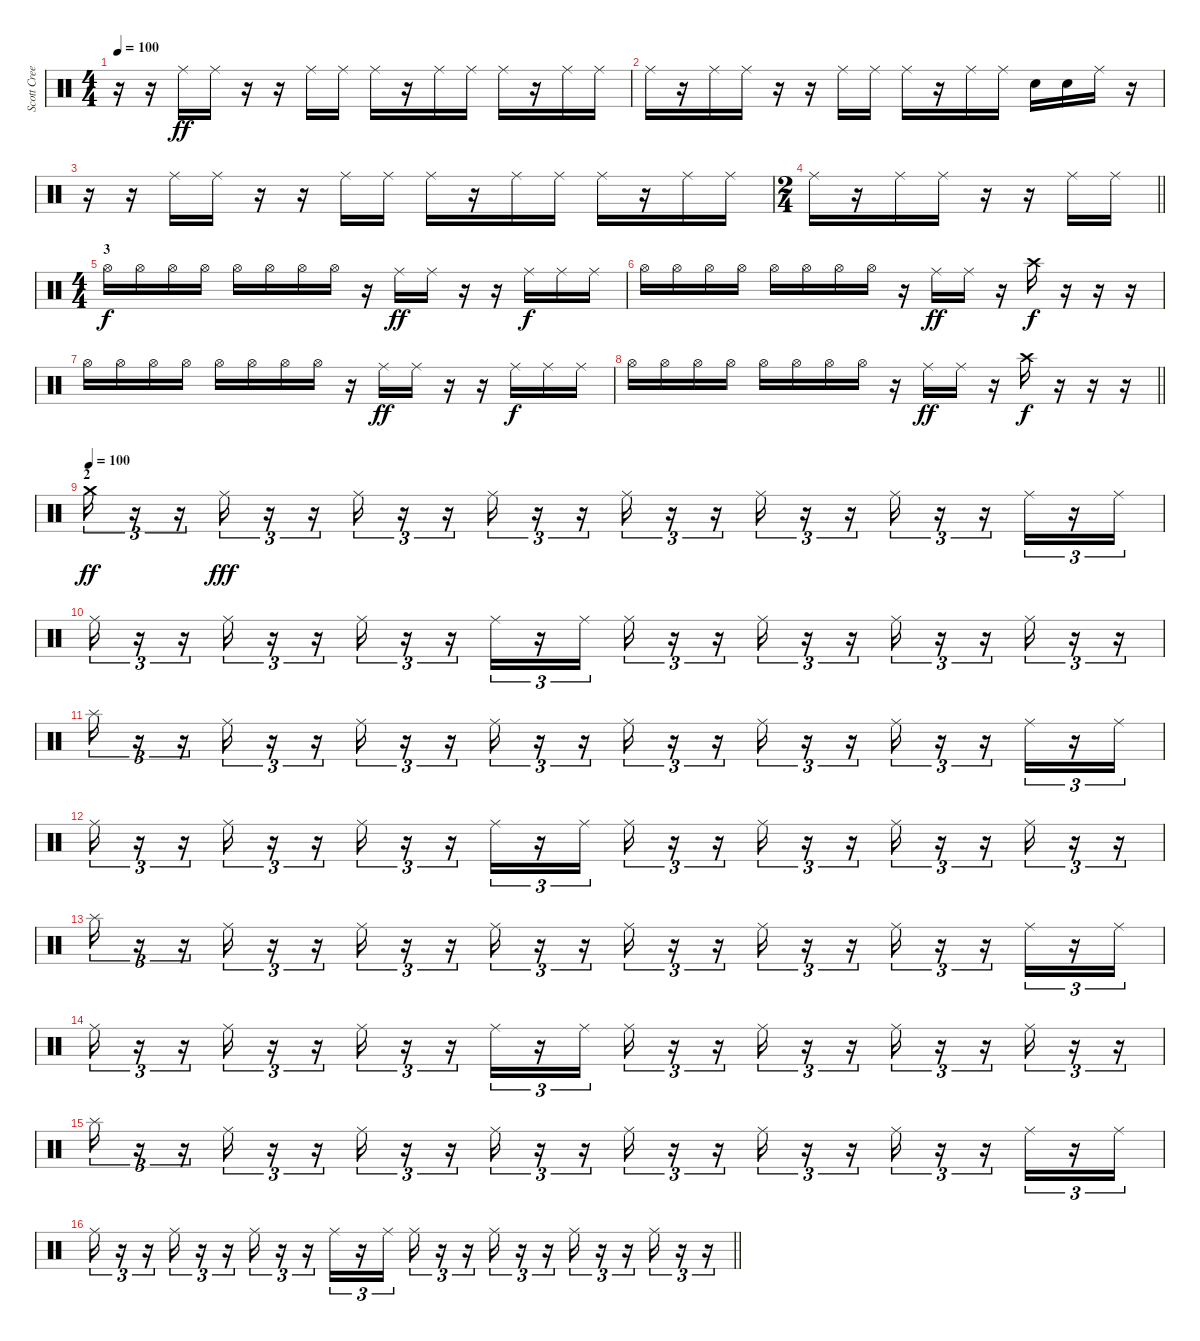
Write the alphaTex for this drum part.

\track ("Scott Creekmore" "Scott Cree") {instrument percussion}
\staff {score}
\articulation defaults
\ts (4 4)
\tempo 100
\clef neutral
\ks c
r.16{dy ff} r.16 "Ride (middle)".16 "Ride (middle)".16 r.16 r.16 "Ride (middle)".16 "Ride (middle)".16 "Ride (middle)".16 r.16 "Ride (middle)".16 "Ride (middle)".16 "Ride (middle)".16 r.16 "Ride (middle)".16 "Ride (middle)".16 |
"Ride (middle)".16 r.16 "Ride (middle)".16 "Ride (middle)".16 r.16 r.16 "Ride (middle)".16 "Ride (middle)".16 "Ride (middle)".16 r.16 "Ride (middle)".16 "Ride (middle)".16 "Electric Snare (hit)".16 "Electric Snare (hit)".16 "Ride (middle)".16 r.16 |
r.16 r.16 "Ride (middle)".16 "Ride (middle)".16 r.16 r.16 "Ride (middle)".16 "Ride (middle)".16 "Ride (middle)".16 r.16 "Ride (middle)".16 "Ride (middle)".16 "Ride (middle)".16 r.16 "Ride (middle)".16 "Ride (middle)".16 |
\ts (2 4)
\barLineRight lightlight "Ride (middle)".16
r.16 "Ride (middle)".16 "Ride (middle)".16 r.16 r.16 "Ride (middle)".16 "Ride (middle)".16 |
\ts (4 4)
\section ("" "3")
"Hi-Hat (open)".16{dy f} "Hi-Hat (open)".16 "Hi-Hat (open)".16 "Hi-Hat (open)".16 "Hi-Hat (open)".16 "Hi-Hat (open)".16 "Hi-Hat (open)".16 "Hi-Hat (open)".16 r.16 "Ride (middle)".16{dy ff} "Ride (middle)".16 r.16 r.16 "Ride (middle)".16{dy f} "Ride (middle)".16 "Ride (middle)".16 |
"Hi-Hat (open)".16 "Hi-Hat (open)".16 "Hi-Hat (open)".16 "Hi-Hat (open)".16 "Hi-Hat (open)".16 "Hi-Hat (open)".16 "Hi-Hat (open)".16 "Hi-Hat (open)".16 r.16 "Ride (middle)".16{dy ff} "Ride (middle)".16 r.16 "Crash high (hit)".16{dy f} r.16 r.16 r.16 |
"Hi-Hat (open)".16 "Hi-Hat (open)".16 "Hi-Hat (open)".16 "Hi-Hat (open)".16 "Hi-Hat (open)".16 "Hi-Hat (open)".16 "Hi-Hat (open)".16 "Hi-Hat (open)".16 r.16 "Ride (middle)".16{dy ff} "Ride (middle)".16 r.16 r.16 "Ride (middle)".16{dy f} "Ride (middle)".16 "Ride (middle)".16 |
\barLineRight lightlight "Hi-Hat (open)".16 "Hi-Hat (open)".16 "Hi-Hat (open)".16 "Hi-Hat (open)".16 "Hi-Hat (open)".16 "Hi-Hat (open)".16 "Hi-Hat (open)".16 "Hi-Hat (open)".16
r.16 "Ride (middle)".16{dy ff} "Ride (middle)".16 r.16 "Crash high (hit)".16{dy f} r.16 r.16 r.16 |
\section ("" "2")
\tempo (100)
"Crash medium (hit)".16{tu (3 2) dy ff} r.16{tu (3 2)} r.16{tu (3 2)} "Ride (middle)".16{tu (3 2) dy fff} r.16{tu (3 2)} r.16{tu (3 2)} "Ride (middle)".16{tu (3 2)} r.16{tu (3 2)} r.16{tu (3 2)} "Ride (middle)".16{tu (3 2)} r.16{tu (3 2)} r.16{tu (3 2)} "Ride (middle)".16{tu (3 2)} r.16{tu (3 2)} r.16{tu (3 2)} "Ride (middle)".16{tu (3 2)} r.16{tu (3 2)} r.16{tu (3 2)} "Ride (middle)".16{tu (3 2)} r.16{tu (3 2)} r.16{tu (3 2)} "Ride (middle)".16{tu (3 2)} r.16{tu (3 2)} "Ride (middle)".16{tu (3 2)} |
"Ride (middle)".16{tu (3 2)} r.16{tu (3 2)} r.16{tu (3 2)} "Ride (middle)".16{tu (3 2)} r.16{tu (3 2)} r.16{tu (3 2)} "Ride (middle)".16{tu (3 2)} r.16{tu (3 2)} r.16{tu (3 2)} "Ride (middle)".16{tu (3 2)} r.16{tu (3 2)} "Ride (middle)".16{tu (3 2)} "Ride (middle)".16{tu (3 2)} r.16{tu (3 2)} r.16{tu (3 2)} "Ride (middle)".16{tu (3 2)} r.16{tu (3 2)} r.16{tu (3 2)} "Ride (middle)".16{tu (3 2)} r.16{tu (3 2)} r.16{tu (3 2)} "Ride (middle)".16{tu (3 2)} r.16{tu (3 2)} r.16{tu (3 2)} |
"Splash (hit)".16{tu (3 2)} r.16{tu (3 2)} r.16{tu (3 2)} "Ride (middle)".16{tu (3 2)} r.16{tu (3 2)} r.16{tu (3 2)} "Ride (middle)".16{tu (3 2)} r.16{tu (3 2)} r.16{tu (3 2)} "Ride (middle)".16{tu (3 2)} r.16{tu (3 2)} r.16{tu (3 2)} "Ride (middle)".16{tu (3 2)} r.16{tu (3 2)} r.16{tu (3 2)} "Ride (middle)".16{tu (3 2)} r.16{tu (3 2)} r.16{tu (3 2)} "Ride (middle)".16{tu (3 2)} r.16{tu (3 2)} r.16{tu (3 2)} "Ride (middle)".16{tu (3 2)} r.16{tu (3 2)} "Ride (middle)".16{tu (3 2)} |
"Ride (middle)".16{tu (3 2)} r.16{tu (3 2)} r.16{tu (3 2)} "Ride (middle)".16{tu (3 2)} r.16{tu (3 2)} r.16{tu (3 2)} "Ride (middle)".16{tu (3 2)} r.16{tu (3 2)} r.16{tu (3 2)} "Ride (middle)".16{tu (3 2)} r.16{tu (3 2)} "Ride (middle)".16{tu (3 2)} "Ride (middle)".16{tu (3 2)} r.16{tu (3 2)} r.16{tu (3 2)} "Ride (middle)".16{tu (3 2)} r.16{tu (3 2)} r.16{tu (3 2)} "Ride (middle)".16{tu (3 2)} r.16{tu (3 2)} r.16{tu (3 2)} "Ride (middle)".16{tu (3 2)} r.16{tu (3 2)} r.16{tu (3 2)} |
"Splash (hit)".16{tu (3 2)} r.16{tu (3 2)} r.16{tu (3 2)} "Ride (middle)".16{tu (3 2)} r.16{tu (3 2)} r.16{tu (3 2)} "Ride (middle)".16{tu (3 2)} r.16{tu (3 2)} r.16{tu (3 2)} "Ride (middle)".16{tu (3 2)} r.16{tu (3 2)} r.16{tu (3 2)} "Ride (middle)".16{tu (3 2)} r.16{tu (3 2)} r.16{tu (3 2)} "Ride (middle)".16{tu (3 2)} r.16{tu (3 2)} r.16{tu (3 2)} "Ride (middle)".16{tu (3 2)} r.16{tu (3 2)} r.16{tu (3 2)} "Ride (middle)".16{tu (3 2)} r.16{tu (3 2)} "Ride (middle)".16{tu (3 2)} |
"Ride (middle)".16{tu (3 2)} r.16{tu (3 2)} r.16{tu (3 2)} "Ride (middle)".16{tu (3 2)} r.16{tu (3 2)} r.16{tu (3 2)} "Ride (middle)".16{tu (3 2)} r.16{tu (3 2)} r.16{tu (3 2)} "Ride (middle)".16{tu (3 2)} r.16{tu (3 2)} "Ride (middle)".16{tu (3 2)} "Ride (middle)".16{tu (3 2)} r.16{tu (3 2)} r.16{tu (3 2)} "Ride (middle)".16{tu (3 2)} r.16{tu (3 2)} r.16{tu (3 2)} "Ride (middle)".16{tu (3 2)} r.16{tu (3 2)} r.16{tu (3 2)} "Ride (middle)".16{tu (3 2)} r.16{tu (3 2)} r.16{tu (3 2)} |
"Splash (hit)".16{tu (3 2)} r.16{tu (3 2)} r.16{tu (3 2)} "Ride (middle)".16{tu (3 2)} r.16{tu (3 2)} r.16{tu (3 2)} "Ride (middle)".16{tu (3 2)} r.16{tu (3 2)} r.16{tu (3 2)} "Ride (middle)".16{tu (3 2)} r.16{tu (3 2)} r.16{tu (3 2)} "Ride (middle)".16{tu (3 2)} r.16{tu (3 2)} r.16{tu (3 2)} "Ride (middle)".16{tu (3 2)} r.16{tu (3 2)} r.16{tu (3 2)} "Ride (middle)".16{tu (3 2)} r.16{tu (3 2)} r.16{tu (3 2)} "Ride (middle)".16{tu (3 2)} r.16{tu (3 2)} "Ride (middle)".16{tu (3 2)} |
\barLineRight lightlight "Ride (middle)".16{tu (3 2)}
r.16{tu (3 2)} r.16{tu (3 2)} "Ride (middle)".16{tu (3 2)} r.16{tu (3 2)} r.16{tu (3 2)} "Ride (middle)".16{tu (3 2)} r.16{tu (3 2)} r.16{tu (3 2)} "Ride (middle)".16{tu (3 2)} r.16{tu (3 2)} "Ride (middle)".16{tu (3 2)} "Ride (middle)".16{tu (3 2)} r.16{tu (3 2)} r.16{tu (3 2)} "Ride (middle)".16{tu (3 2)} r.16{tu (3 2)} r.16{tu (3 2)} "Ride (middle)".16{tu (3 2)} r.16{tu (3 2)} r.16{tu (3 2)} "Ride (middle)".16{tu (3 2)} r.16{tu (3 2)} r.16{tu (3 2)}
